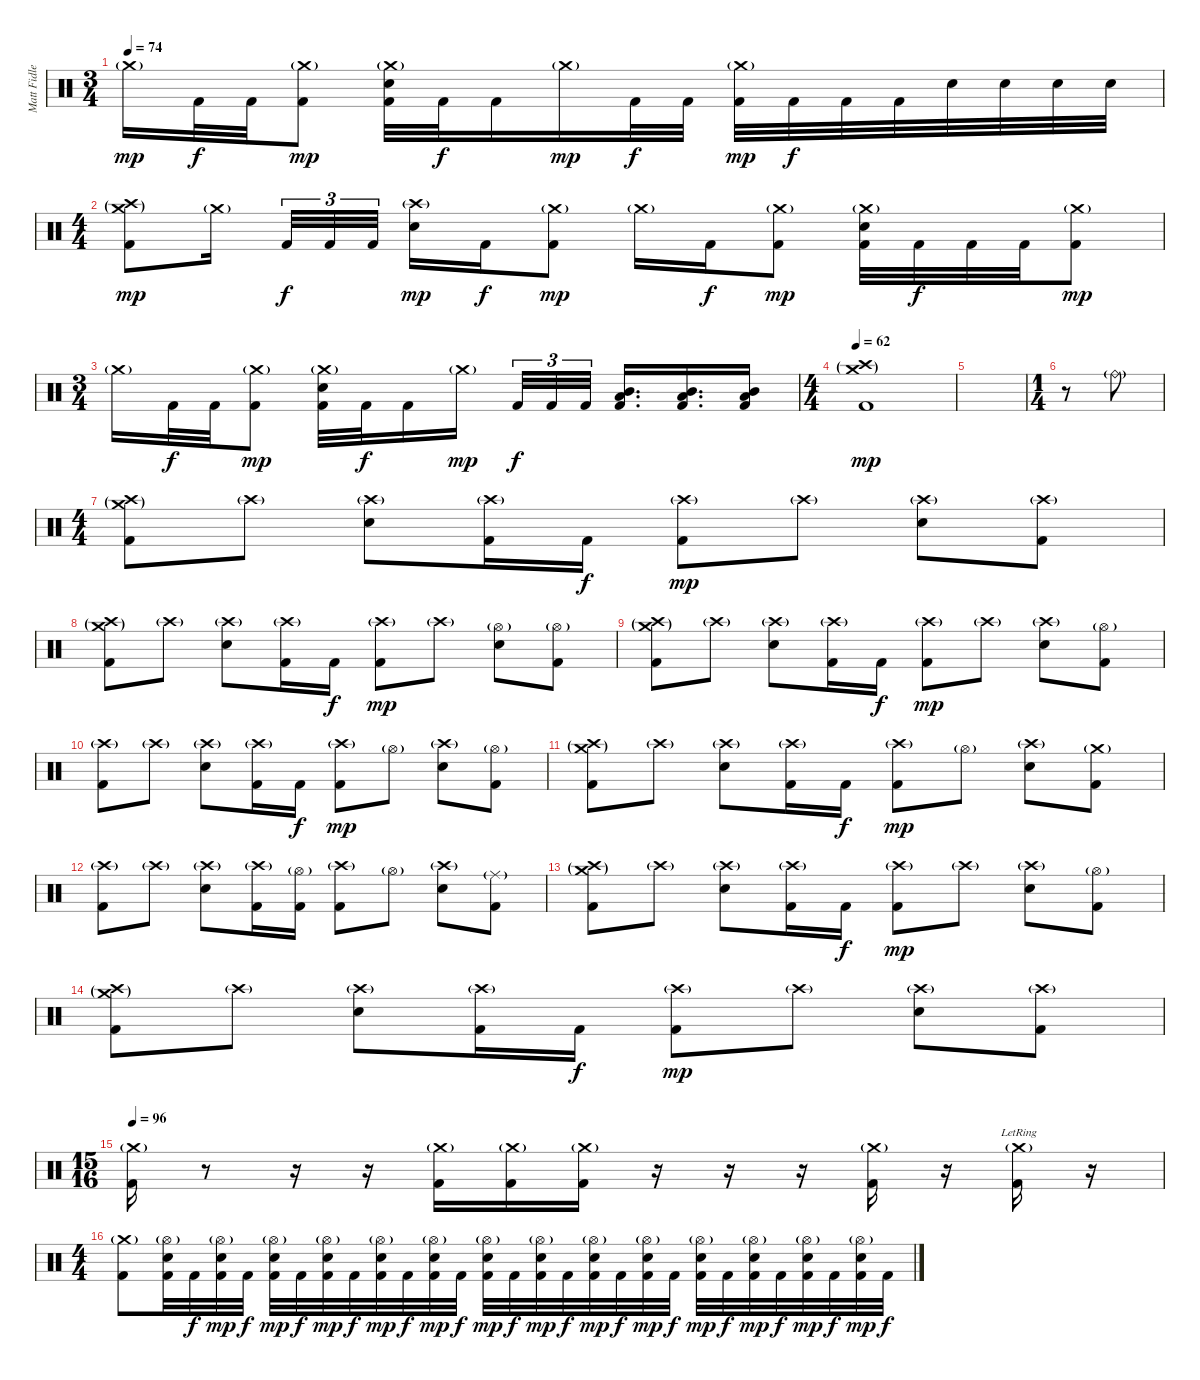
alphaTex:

\track ("Matt Fidler---Drums" "Matt Fidle") {instrument percussion}
\staff {score}
\articulation defaults
\ts (3 4)
\tempo 74
\clef neutral
\ks c "Crash medium (hit)"{g}.16{dy mp} "Kick (hit) 2".32{dy f} "Kick (hit) 2".32
("Crash medium (hit)"{g} "Kick (hit) 2").8{dy mp} ("Crash medium (hit)"{g} "Electric Snare (hit)" "Kick (hit) 2").32 "Kick (hit) 2".32{dy f} "Kick (hit) 2".16 "Crash medium (hit)"{g}.16{dy mp} "Kick (hit) 2".32{dy f} "Kick (hit) 2".32 ("Crash medium (hit)"{g} "Kick (hit) 2").32{dy mp} "Kick (hit) 2".32{dy f} "Kick (hit) 2".32 "Kick (hit) 2".32 "Electric Snare (hit)".32 "Electric Snare (hit)".32 "Electric Snare (hit)".32 "Electric Snare (hit)".32 |
\ts (4 4)
("Crash high (hit)"{g} "Crash medium (hit)"{g} "Kick (hit) 2").8{dy mp} "Crash medium (hit)"{g}.16{beam splitsecondary} "Kick (hit) 2".32{tu (3 2) dy f} "Kick (hit) 2".32{tu (3 2)} "Kick (hit) 2".32{tu (3 2)} ("Crash high (hit)"{g} "Electric Snare (hit)").16{dy mp} "Kick (hit) 2".16{dy f} ("Crash medium (hit)"{g} "Kick (hit) 2").8{dy mp} "Crash medium (hit)"{g}.16 "Kick (hit) 2".16{dy f} ("Crash medium (hit)"{g} "Kick (hit) 2").8{dy mp} ("Crash medium (hit)"{g} "Electric Snare (hit)" "Kick (hit) 2").32 "Kick (hit) 2".32{dy f} "Kick (hit) 2".32 "Kick (hit) 2".32 ("Crash medium (hit)"{g} "Kick (hit) 2").8{dy mp} |
\ts (3 4)
"Crash medium (hit)"{g}.16 "Kick (hit) 2".32{dy f} "Kick (hit) 2".32 ("Crash medium (hit)"{g} "Kick (hit) 2").8{dy mp} ("Crash medium (hit)"{g} "Electric Snare (hit)" "Kick (hit) 2").32 "Kick (hit) 2".32{dy f} "Kick (hit) 2".16 "Crash medium (hit)"{g}.16{dy mp beam splitsecondary} "Kick (hit) 2".32{tu (3 2) dy f} "Kick (hit) 2".32{tu (3 2)} "Kick (hit) 2".32{tu (3 2)} ("Mid Tom (hit)" "Low Tom (hit)" "Kick (hit) 2").16{d} ("Mid Tom (hit)" "Low Tom (hit)" "Kick (hit) 2").16{d} ("Mid Tom (hit)" "Low Tom (hit)" "Kick (hit) 2").16 |
\ts (4 4)
\tempo 62
("Crash high (hit)"{g} "Crash medium (hit)"{g} "Kick (hit) 2").1{dy mp} |
|
\ts (1 4)
r.8 "Ride (bell)"{g}.8 |
\ts (4 4)
("Crash high (hit)"{g} "Crash medium (hit)"{g} "Kick (hit) 2").8 "Crash high (hit)"{g}.8 ("Crash high (hit)"{g} "Electric Snare (hit)").8 ("Crash high (hit)"{g} "Kick (hit) 2").16 "Kick (hit) 2".16{dy f} ("Crash high (hit)"{g} "Kick (hit) 2").8{dy mp} "Crash high (hit)"{g}.8 ("Crash high (hit)"{g} "Electric Snare (hit)").8 ("Crash high (hit)"{g} "Kick (hit) 2").8 |
("Crash high (hit)"{g} "Crash medium (hit)"{g} "Kick (hit) 2").8 "Crash high (hit)"{g}.8 ("Crash high (hit)"{g} "Electric Snare (hit)").8 ("Crash high (hit)"{g} "Kick (hit) 2").16 "Kick (hit) 2".16{dy f} ("Crash high (hit)"{g} "Kick (hit) 2").8{dy mp} "Crash high (hit)"{g}.8 ("Hi-Hat (open)"{g} "Electric Snare (hit)").8 ("Hi-Hat (open)"{g} "Kick (hit) 2").8 |
("Crash high (hit)"{g} "Crash medium (hit)"{g} "Kick (hit) 2").8 "Crash high (hit)"{g}.8 ("Crash high (hit)"{g} "Electric Snare (hit)").8 ("Crash high (hit)"{g} "Kick (hit) 2").16 "Kick (hit) 2".16{dy f} ("Crash high (hit)"{g} "Kick (hit) 2").8{dy mp} "Crash high (hit)"{g}.8 ("Crash high (hit)"{g} "Electric Snare (hit)").8 ("Hi-Hat (open)"{g} "Kick (hit) 2").8 |
("Crash high (hit)"{g} "Kick (hit) 2").8 "Crash high (hit)"{g}.8 ("Crash high (hit)"{g} "Electric Snare (hit)").8 ("Crash high (hit)"{g} "Kick (hit) 2").16 "Kick (hit) 2".16{dy f} ("Crash high (hit)"{g} "Kick (hit) 2").8{dy mp} "Hi-Hat (open)"{g}.8 ("Crash high (hit)"{g} "Electric Snare (hit)").8 ("Hi-Hat (open)"{g} "Kick (hit) 2").8 |
("Crash high (hit)"{g} "Crash medium (hit)"{g} "Kick (hit) 2").8 "Crash high (hit)"{g}.8 ("Crash high (hit)"{g} "Electric Snare (hit)").8 ("Crash high (hit)"{g} "Kick (hit) 2").16 "Kick (hit) 2".16{dy f} ("Crash high (hit)"{g} "Kick (hit) 2").8{dy mp} "Hi-Hat (open)"{g}.8 ("Crash high (hit)"{g} "Electric Snare (hit)").8 ("Crash medium (hit)"{g} "Kick (hit) 2").8 |
("Crash high (hit)"{g} "Kick (hit) 2").8 "Crash high (hit)"{g}.8 ("Crash high (hit)"{g} "Electric Snare (hit)").8 ("Crash high (hit)"{g} "Kick (hit) 2").16 ("Hi-Hat (open)"{g} "Kick (hit) 2").16 ("Crash high (hit)"{g} "Kick (hit) 2").8 "Hi-Hat (open)"{g}.8 ("Crash high (hit)"{g} "Electric Snare (hit)").8 ("Ride (middle)"{g} "Kick (hit) 2").8 |
("Crash high (hit)"{g} "Crash medium (hit)"{g} "Kick (hit) 2").8 "Crash high (hit)"{g}.8 ("Crash high (hit)"{g} "Electric Snare (hit)").8 ("Crash high (hit)"{g} "Kick (hit) 2").16 "Kick (hit) 2".16{dy f} ("Crash high (hit)"{g} "Kick (hit) 2").8{dy mp} "Crash high (hit)"{g}.8 ("Crash high (hit)"{g} "Electric Snare (hit)").8 ("Hi-Hat (open)"{g} "Kick (hit) 2").8 |
("Crash high (hit)"{g} "Crash medium (hit)"{g} "Kick (hit) 2").8 "Crash high (hit)"{g}.8 ("Crash high (hit)"{g} "Electric Snare (hit)").8 ("Crash high (hit)"{g} "Kick (hit) 2").16 "Kick (hit) 2".16{dy f} ("Crash high (hit)"{g} "Kick (hit) 2").8{dy mp} "Crash high (hit)"{g}.8 ("Crash high (hit)"{g} "Electric Snare (hit)").8 ("Crash high (hit)"{g} "Kick (hit) 2").8 |
\ts (15 16)
\tempo 96
("Crash medium (hit)"{g} "Kick (hit) 2").16 r.8{volume 0} r.16 r.16 ("Crash medium (hit)"{g} "Kick (hit) 2").16{volume 16} ("Crash medium (hit)"{g} "Kick (hit) 2").16 ("Crash medium (hit)"{g} "Kick (hit) 2").16 r.16{volume 0} r.16 r.16 ("Crash medium (hit)"{g} "Kick (hit) 2").16{volume 16} r.16{volume 0} ("Crash medium (hit)"{g lr} "Kick (hit) 2").16{volume 16} r.16{volume 0} |
\ts (4 4)
("Crash medium (hit)"{g} "Kick (hit) 2").8{volume 16} ("Hi-Hat (open)"{g} "Electric Snare (hit)" "Kick (hit) 2").32 "Kick (hit) 2".32{dy f} ("Hi-Hat (open)"{g} "Electric Snare (hit)" "Kick (hit) 2").32{dy mp} "Kick (hit) 2".32{dy f} ("Hi-Hat (open)"{g} "Electric Snare (hit)" "Kick (hit) 2").32{dy mp} "Kick (hit) 2".32{dy f} ("Hi-Hat (open)"{g} "Electric Snare (hit)" "Kick (hit) 2").32{dy mp} "Kick (hit) 2".32{dy f} ("Hi-Hat (open)"{g} "Electric Snare (hit)" "Kick (hit) 2").32{dy mp} "Kick (hit) 2".32{dy f} ("Hi-Hat (open)"{g} "Electric Snare (hit)" "Kick (hit) 2").32{dy mp} "Kick (hit) 2".32{dy f} ("Hi-Hat (open)"{g} "Electric Snare (hit)" "Kick (hit) 2").32{dy mp} "Kick (hit) 2".32{dy f} ("Hi-Hat (open)"{g} "Electric Snare (hit)" "Kick (hit) 2").32{dy mp} "Kick (hit) 2".32{dy f} ("Hi-Hat (open)"{g} "Electric Snare (hit)" "Kick (hit) 2").32{dy mp} "Kick (hit) 2".32{dy f} ("Hi-Hat (open)"{g} "Electric Snare (hit)" "Kick (hit) 2").32{dy mp} "Kick (hit) 2".32{dy f} ("Hi-Hat (open)"{g} "Electric Snare (hit)" "Kick (hit) 2").32{dy mp} "Kick (hit) 2".32{dy f} ("Hi-Hat (open)"{g} "Electric Snare (hit)" "Kick (hit) 2").32{dy mp} "Kick (hit) 2".32{dy f} ("Hi-Hat (open)"{g} "Electric Snare (hit)" "Kick (hit) 2").32{dy mp} "Kick (hit) 2".32{dy f} ("Hi-Hat (open)"{g} "Electric Snare (hit)" "Kick (hit) 2").32{dy mp} "Kick (hit) 2".32{dy f}
